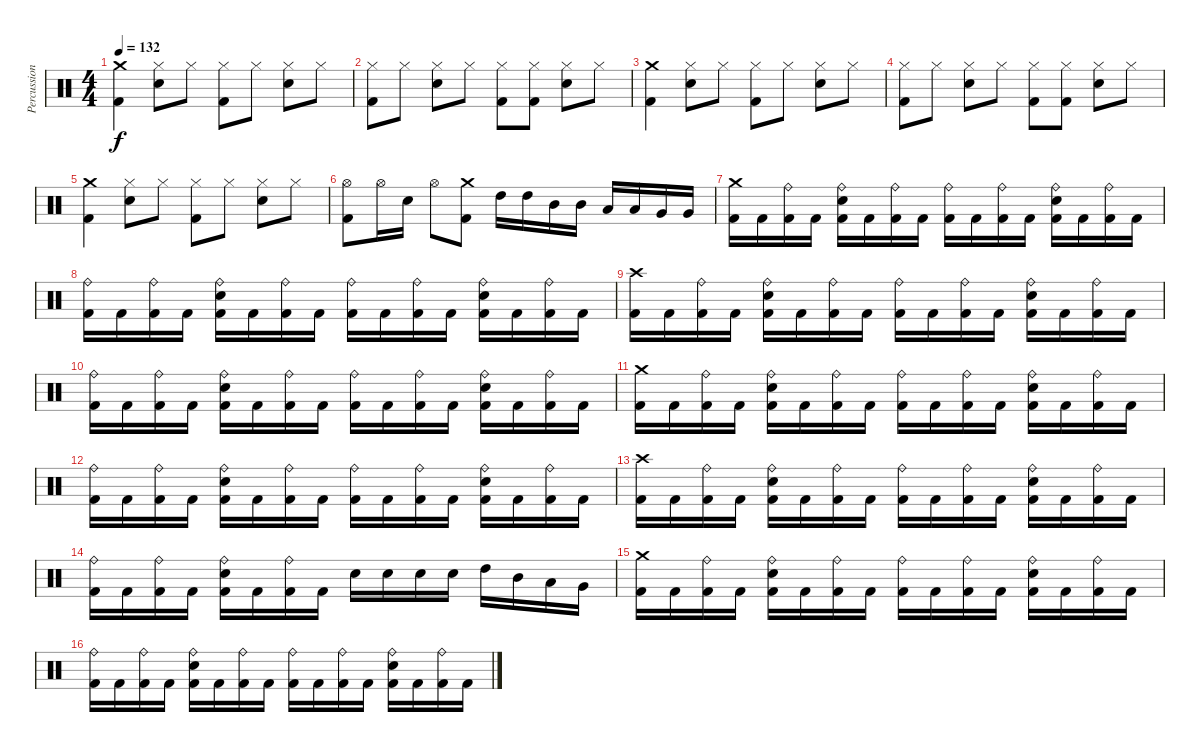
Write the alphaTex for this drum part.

\track ("Percussion" "Percussion") {instrument percussion}
\staff {score}
\articulation defaults
\ts (4 4)
\tempo 132
\clef neutral
\ks c
("Kick (hit) 2" "Crash medium (hit)").4{dy f} ("Snare (hit) 2" "Hi-Hat (closed)").8 "Hi-Hat (closed)".8 ("Kick (hit) 2" "Hi-Hat (closed)").8 "Hi-Hat (closed)".8 ("Snare (hit) 2" "Hi-Hat (closed)").8 "Hi-Hat (closed)".8 |
("Kick (hit) 2" "Hi-Hat (closed)").8 "Hi-Hat (closed)".8 ("Snare (hit) 2" "Hi-Hat (closed)").8 "Hi-Hat (closed)".8 ("Kick (hit) 2" "Hi-Hat (closed)").8 ("Kick (hit) 2" "Hi-Hat (closed)").8 ("Snare (hit) 2" "Hi-Hat (closed)").8 "Hi-Hat (closed)".8 |
("Kick (hit) 2" "Crash medium (hit)").4 ("Snare (hit) 2" "Hi-Hat (closed)").8 "Hi-Hat (closed)".8 ("Kick (hit) 2" "Hi-Hat (closed)").8 "Hi-Hat (closed)".8 ("Snare (hit) 2" "Hi-Hat (closed)").8 "Hi-Hat (closed)".8 |
("Kick (hit) 2" "Hi-Hat (closed)").8 "Hi-Hat (closed)".8 ("Snare (hit) 2" "Hi-Hat (closed)").8 "Hi-Hat (closed)".8 ("Kick (hit) 2" "Hi-Hat (closed)").8 ("Kick (hit) 2" "Hi-Hat (closed)").8 ("Snare (hit) 2" "Hi-Hat (closed)").8 "Hi-Hat (closed)".8 |
("Kick (hit) 2" "Crash medium (hit)").4 ("Snare (hit) 2" "Hi-Hat (closed)").8 "Hi-Hat (closed)".8 ("Kick (hit) 2" "Hi-Hat (closed)").8 "Hi-Hat (closed)".8 ("Snare (hit) 2" "Hi-Hat (closed)").8 "Hi-Hat (closed)".8 |
("Kick (hit) 2" "Hi-Hat (open)").8 "Hi-Hat (open)".16 "Snare (hit) 2".16 "Hi-Hat (open)".8 ("Kick (hit) 2" "Crash medium (hit)").8 "High Tom (hit)".16 "High Tom (hit)".16 "Mid Tom (hit)".16 "Mid Tom (hit)".16 "Low Tom (hit)".16 "Low Tom (hit)".16 "Very Low Tom (hit)".16 "Very Low Tom (hit)".16 |
("Crash medium (hit)" "Kick (hit) 2").16 "Kick (hit) 2".16 ("Ride (bell)" "Kick (hit) 2").16 "Kick (hit) 2".16 ("Snare (hit) 2" "Ride (bell)" "Kick (hit) 2").16 "Kick (hit) 2".16 ("Ride (bell)" "Kick (hit) 2").16 "Kick (hit) 2".16 ("Ride (bell)" "Kick (hit) 2").16 "Kick (hit) 2".16 ("Ride (bell)" "Kick (hit) 2").16 "Kick (hit) 2".16 ("Snare (hit) 2" "Ride (bell)" "Kick (hit) 2").16 "Kick (hit) 2".16 ("Ride (bell)" "Kick (hit) 2").16 "Kick (hit) 2".16 |
("Ride (bell)" "Kick (hit) 2").16 "Kick (hit) 2".16 ("Ride (bell)" "Kick (hit) 2").16 "Kick (hit) 2".16 ("Snare (hit) 2" "Ride (bell)" "Kick (hit) 2").16 "Kick (hit) 2".16 ("Ride (bell)" "Kick (hit) 2").16 "Kick (hit) 2".16 ("Ride (bell)" "Kick (hit) 2").16 "Kick (hit) 2".16 ("Ride (bell)" "Kick (hit) 2").16 "Kick (hit) 2".16 ("Snare (hit) 2" "Ride (bell)" "Kick (hit) 2").16 "Kick (hit) 2".16 ("Ride (bell)" "Kick (hit) 2").16 "Kick (hit) 2".16 |
("Crash high (hit)" "Kick (hit) 2").16 "Kick (hit) 2".16 ("Ride (bell)" "Kick (hit) 2").16 "Kick (hit) 2".16 ("Snare (hit) 2" "Ride (bell)" "Kick (hit) 2").16 "Kick (hit) 2".16 ("Ride (bell)" "Kick (hit) 2").16 "Kick (hit) 2".16 ("Ride (bell)" "Kick (hit) 2").16 "Kick (hit) 2".16 ("Ride (bell)" "Kick (hit) 2").16 "Kick (hit) 2".16 ("Snare (hit) 2" "Ride (bell)" "Kick (hit) 2").16 "Kick (hit) 2".16 ("Ride (bell)" "Kick (hit) 2").16 "Kick (hit) 2".16 |
("Ride (bell)" "Kick (hit) 2").16 "Kick (hit) 2".16 ("Ride (bell)" "Kick (hit) 2").16 "Kick (hit) 2".16 ("Snare (hit) 2" "Ride (bell)" "Kick (hit) 2").16 "Kick (hit) 2".16 ("Ride (bell)" "Kick (hit) 2").16 "Kick (hit) 2".16 ("Ride (bell)" "Kick (hit) 2").16 "Kick (hit) 2".16 ("Ride (bell)" "Kick (hit) 2").16 "Kick (hit) 2".16 ("Snare (hit) 2" "Ride (bell)" "Kick (hit) 2").16 "Kick (hit) 2".16 ("Ride (bell)" "Kick (hit) 2").16 "Kick (hit) 2".16 |
("Crash medium (hit)" "Kick (hit) 2").16 "Kick (hit) 2".16 ("Ride (bell)" "Kick (hit) 2").16 "Kick (hit) 2".16 ("Snare (hit) 2" "Ride (bell)" "Kick (hit) 2").16 "Kick (hit) 2".16 ("Ride (bell)" "Kick (hit) 2").16 "Kick (hit) 2".16 ("Ride (bell)" "Kick (hit) 2").16 "Kick (hit) 2".16 ("Ride (bell)" "Kick (hit) 2").16 "Kick (hit) 2".16 ("Snare (hit) 2" "Ride (bell)" "Kick (hit) 2").16 "Kick (hit) 2".16 ("Ride (bell)" "Kick (hit) 2").16 "Kick (hit) 2".16 |
("Ride (bell)" "Kick (hit) 2").16 "Kick (hit) 2".16 ("Ride (bell)" "Kick (hit) 2").16 "Kick (hit) 2".16 ("Snare (hit) 2" "Ride (bell)" "Kick (hit) 2").16 "Kick (hit) 2".16 ("Ride (bell)" "Kick (hit) 2").16 "Kick (hit) 2".16 ("Ride (bell)" "Kick (hit) 2").16 "Kick (hit) 2".16 ("Ride (bell)" "Kick (hit) 2").16 "Kick (hit) 2".16 ("Snare (hit) 2" "Ride (bell)" "Kick (hit) 2").16 "Kick (hit) 2".16 ("Ride (bell)" "Kick (hit) 2").16 "Kick (hit) 2".16 |
("Crash high (hit)" "Kick (hit) 2").16 "Kick (hit) 2".16 ("Ride (bell)" "Kick (hit) 2").16 "Kick (hit) 2".16 ("Snare (hit) 2" "Ride (bell)" "Kick (hit) 2").16 "Kick (hit) 2".16 ("Ride (bell)" "Kick (hit) 2").16 "Kick (hit) 2".16 ("Ride (bell)" "Kick (hit) 2").16 "Kick (hit) 2".16 ("Ride (bell)" "Kick (hit) 2").16 "Kick (hit) 2".16 ("Snare (hit) 2" "Ride (bell)" "Kick (hit) 2").16 "Kick (hit) 2".16 ("Ride (bell)" "Kick (hit) 2").16 "Kick (hit) 2".16 |
("Ride (bell)" "Kick (hit) 2").16 "Kick (hit) 2".16 ("Ride (bell)" "Kick (hit) 2").16 "Kick (hit) 2".16 ("Snare (hit) 2" "Ride (bell)" "Kick (hit) 2").16 "Kick (hit) 2".16 ("Ride (bell)" "Kick (hit) 2").16 "Kick (hit) 2".16 "Snare (hit) 2".16 "Snare (hit) 2".16 "Snare (hit) 2".16 "Snare (hit) 2".16 "High Tom (hit)".16 "Mid Tom (hit)".16 "Low Tom (hit)".16 "Very Low Tom (hit)".16 |
("Crash medium (hit)" "Kick (hit) 2").16 "Kick (hit) 2".16 ("Ride (bell)" "Kick (hit) 2").16 "Kick (hit) 2".16 ("Snare (hit) 2" "Ride (bell)" "Kick (hit) 2").16 "Kick (hit) 2".16 ("Ride (bell)" "Kick (hit) 2").16 "Kick (hit) 2".16 ("Ride (bell)" "Kick (hit) 2").16 "Kick (hit) 2".16 ("Ride (bell)" "Kick (hit) 2").16 "Kick (hit) 2".16 ("Snare (hit) 2" "Ride (bell)" "Kick (hit) 2").16 "Kick (hit) 2".16 ("Ride (bell)" "Kick (hit) 2").16 "Kick (hit) 2".16 |
("Ride (bell)" "Kick (hit) 2").16 "Kick (hit) 2".16 ("Ride (bell)" "Kick (hit) 2").16 "Kick (hit) 2".16 ("Snare (hit) 2" "Ride (bell)" "Kick (hit) 2").16 "Kick (hit) 2".16 ("Ride (bell)" "Kick (hit) 2").16 "Kick (hit) 2".16 ("Ride (bell)" "Kick (hit) 2").16 "Kick (hit) 2".16 ("Ride (bell)" "Kick (hit) 2").16 "Kick (hit) 2".16 ("Snare (hit) 2" "Ride (bell)" "Kick (hit) 2").16 "Kick (hit) 2".16 ("Ride (bell)" "Kick (hit) 2").16 "Kick (hit) 2".16
